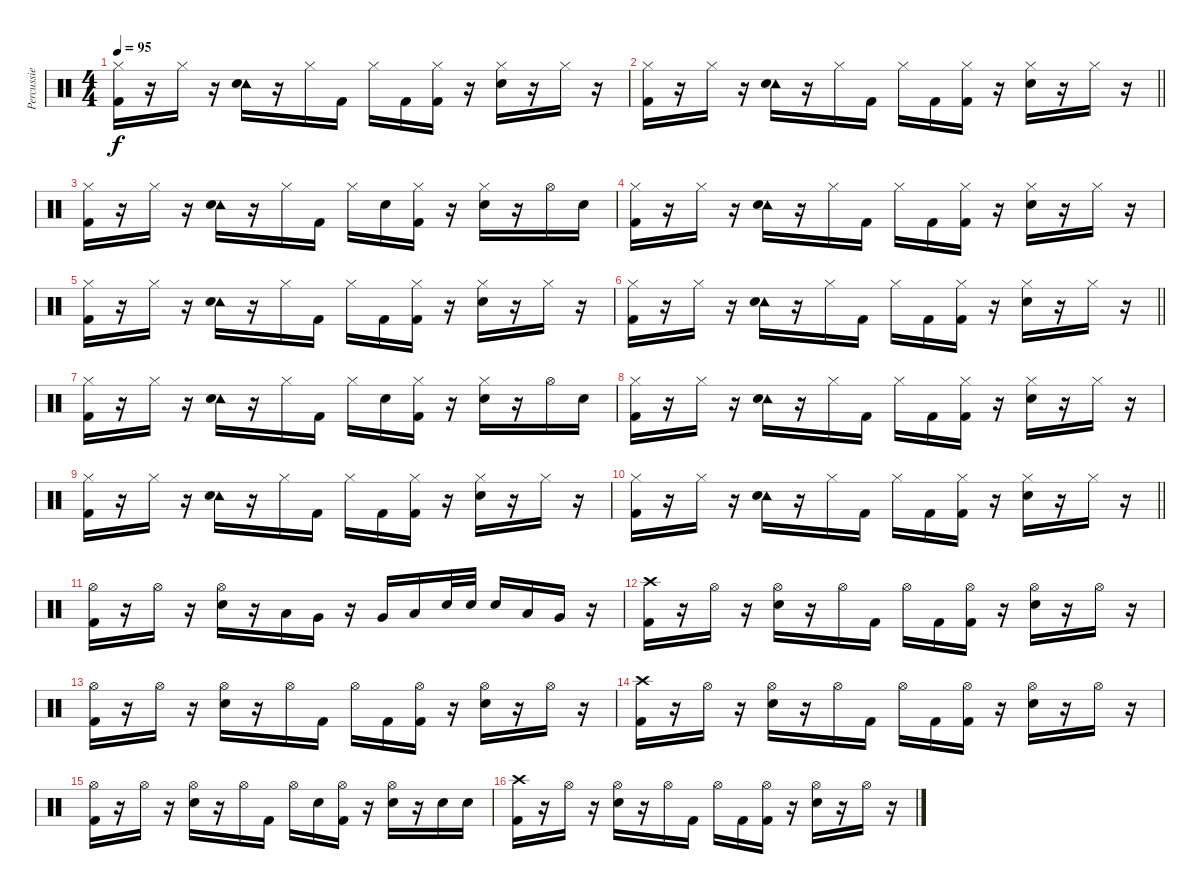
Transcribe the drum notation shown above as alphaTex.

\track ("Percussie" "Percussie") {instrument percussion}
\staff {score}
\articulation defaults
\ts (4 4)
\tempo 95
\clef neutral
\ks c
("Hi-Hat (closed)" "Kick (hit) 2").16{dy f} r.16 "Hi-Hat (closed)".16 r.16 ("Tambourine (hit)" "Electric Snare (hit)").16 r.16 "Hi-Hat (closed)".16 "Kick (hit) 2".16 "Hi-Hat (closed)".16 "Kick (hit) 2".16 ("Hi-Hat (closed)" "Kick (hit) 2").16 r.16 ("Hi-Hat (closed)" "Electric Snare (hit)").16 r.16 "Hi-Hat (closed)".16 r.16 |
\barLineRight lightlight
("Hi-Hat (closed)" "Kick (hit) 2").16 r.16 "Hi-Hat (closed)".16 r.16 ("Tambourine (hit)" "Electric Snare (hit)").16 r.16 "Hi-Hat (closed)".16 "Kick (hit) 2".16 "Hi-Hat (closed)".16 "Kick (hit) 2".16 ("Hi-Hat (closed)" "Kick (hit) 2").16 r.16 ("Hi-Hat (closed)" "Electric Snare (hit)").16 r.16 "Hi-Hat (closed)".16 r.16 |
("Hi-Hat (closed)" "Kick (hit) 2").16 r.16 "Hi-Hat (closed)".16 r.16 ("Tambourine (hit)" "Electric Snare (hit)").16 r.16 "Hi-Hat (closed)".16 "Kick (hit) 2".16 "Hi-Hat (closed)".16 "Electric Snare (hit)".16 ("Hi-Hat (closed)" "Kick (hit) 2").16 r.16 ("Hi-Hat (closed)" "Electric Snare (hit)").16 r.16 "Hi-Hat (open)".16 "Electric Snare (hit)".16 |
("Hi-Hat (closed)" "Kick (hit) 2").16 r.16 "Hi-Hat (closed)".16 r.16 ("Tambourine (hit)" "Electric Snare (hit)").16 r.16 "Hi-Hat (closed)".16 "Kick (hit) 2".16 "Hi-Hat (closed)".16 "Kick (hit) 2".16 ("Hi-Hat (closed)" "Kick (hit) 2").16 r.16 ("Hi-Hat (closed)" "Electric Snare (hit)").16 r.16 "Hi-Hat (closed)".16 r.16 |
("Hi-Hat (closed)" "Kick (hit) 2").16 r.16 "Hi-Hat (closed)".16 r.16 ("Tambourine (hit)" "Electric Snare (hit)").16 r.16 "Hi-Hat (closed)".16 "Kick (hit) 2".16 "Hi-Hat (closed)".16 "Kick (hit) 2".16 ("Hi-Hat (closed)" "Kick (hit) 2").16 r.16 ("Hi-Hat (closed)" "Electric Snare (hit)").16 r.16 "Hi-Hat (closed)".16 r.16 |
\barLineRight lightlight
("Hi-Hat (closed)" "Kick (hit) 2").16 r.16 "Hi-Hat (closed)".16 r.16 ("Tambourine (hit)" "Electric Snare (hit)").16 r.16 "Hi-Hat (closed)".16 "Kick (hit) 2".16 "Hi-Hat (closed)".16 "Kick (hit) 2".16 ("Hi-Hat (closed)" "Kick (hit) 2").16 r.16 ("Hi-Hat (closed)" "Electric Snare (hit)").16 r.16 "Hi-Hat (closed)".16 r.16 |
("Hi-Hat (closed)" "Kick (hit) 2").16 r.16 "Hi-Hat (closed)".16 r.16 ("Tambourine (hit)" "Electric Snare (hit)").16 r.16 "Hi-Hat (closed)".16 "Kick (hit) 2".16 "Hi-Hat (closed)".16 "Electric Snare (hit)".16 ("Hi-Hat (closed)" "Kick (hit) 2").16 r.16 ("Hi-Hat (closed)" "Electric Snare (hit)").16 r.16 "Hi-Hat (open)".16 "Electric Snare (hit)".16 |
("Hi-Hat (closed)" "Kick (hit) 2").16 r.16 "Hi-Hat (closed)".16 r.16 ("Tambourine (hit)" "Electric Snare (hit)").16 r.16 "Hi-Hat (closed)".16 "Kick (hit) 2".16 "Hi-Hat (closed)".16 "Kick (hit) 2".16 ("Hi-Hat (closed)" "Kick (hit) 2").16 r.16 ("Hi-Hat (closed)" "Electric Snare (hit)").16 r.16 "Hi-Hat (closed)".16 r.16 |
("Hi-Hat (closed)" "Kick (hit) 2").16 r.16 "Hi-Hat (closed)".16 r.16 ("Tambourine (hit)" "Electric Snare (hit)").16 r.16 "Hi-Hat (closed)".16 "Kick (hit) 2".16 "Hi-Hat (closed)".16 "Kick (hit) 2".16 ("Hi-Hat (closed)" "Kick (hit) 2").16 r.16 ("Hi-Hat (closed)" "Electric Snare (hit)").16 r.16 "Hi-Hat (closed)".16 r.16 |
\barLineRight lightlight
("Hi-Hat (closed)" "Kick (hit) 2").16 r.16 "Hi-Hat (closed)".16 r.16 ("Tambourine (hit)" "Electric Snare (hit)").16 r.16 "Hi-Hat (closed)".16 "Kick (hit) 2".16 "Hi-Hat (closed)".16 "Kick (hit) 2".16 ("Hi-Hat (closed)" "Kick (hit) 2").16 r.16 ("Hi-Hat (closed)" "Electric Snare (hit)").16 r.16 "Hi-Hat (closed)".16 r.16 |
("Hi-Hat (open)" "Kick (hit) 2").16 r.16 "Hi-Hat (open)".16 r.16 ("Hi-Hat (open)" "Electric Snare (hit)").16 r.16 "Low Tom (hit)".16 "Very Low Tom (hit)".16 r.16 "Very Low Tom (hit)".16 "Low Tom (hit)".16 "Electric Snare (hit)".32 "Electric Snare (hit)".32 "Electric Snare (hit)".16 "Low Tom (hit)".16 "Very Low Tom (hit)".16 r.16 |
("Crash high (hit)" "Kick (hit) 2").16 r.16 "Hi-Hat (open)".16 r.16 ("Hi-Hat (open)" "Electric Snare (hit)").16 r.16 "Hi-Hat (open)".16 "Kick (hit) 2".16 "Hi-Hat (open)".16 "Kick (hit) 2".16 ("Hi-Hat (open)" "Kick (hit) 2").16 r.16 ("Hi-Hat (open)" "Electric Snare (hit)").16 r.16 "Hi-Hat (open)".16 r.16 |
("Hi-Hat (open)" "Kick (hit) 2").16 r.16 "Hi-Hat (open)".16 r.16 ("Hi-Hat (open)" "Electric Snare (hit)").16 r.16 "Hi-Hat (open)".16 "Kick (hit) 2".16 "Hi-Hat (open)".16 "Kick (hit) 2".16 ("Hi-Hat (open)" "Kick (hit) 2").16 r.16 ("Hi-Hat (open)" "Electric Snare (hit)").16 r.16 "Hi-Hat (open)".16 r.16 |
("Crash high (hit)" "Kick (hit) 2").16 r.16 "Hi-Hat (open)".16 r.16 ("Hi-Hat (open)" "Electric Snare (hit)").16 r.16 "Hi-Hat (open)".16 "Kick (hit) 2".16 "Hi-Hat (open)".16 "Kick (hit) 2".16 ("Hi-Hat (open)" "Kick (hit) 2").16 r.16 ("Hi-Hat (open)" "Electric Snare (hit)").16 r.16 "Hi-Hat (open)".16 r.16 |
("Hi-Hat (open)" "Kick (hit) 2").16 r.16 "Hi-Hat (open)".16 r.16 ("Hi-Hat (open)" "Electric Snare (hit)").16 r.16 "Hi-Hat (open)".16 "Kick (hit) 2".16 "Hi-Hat (open)".16 "Electric Snare (hit)".16 ("Hi-Hat (open)" "Kick (hit) 2").16 r.16 ("Hi-Hat (open)" "Electric Snare (hit)").16 r.16 "Electric Snare (hit)".16 "Electric Snare (hit)".16 |
("Crash high (hit)" "Kick (hit) 2").16 r.16 "Hi-Hat (open)".16 r.16 ("Hi-Hat (open)" "Electric Snare (hit)").16 r.16 "Hi-Hat (open)".16 "Kick (hit) 2".16 "Hi-Hat (open)".16 "Kick (hit) 2".16 ("Hi-Hat (open)" "Kick (hit) 2").16 r.16 ("Hi-Hat (open)" "Electric Snare (hit)").16 r.16 "Hi-Hat (open)".16 r.16
